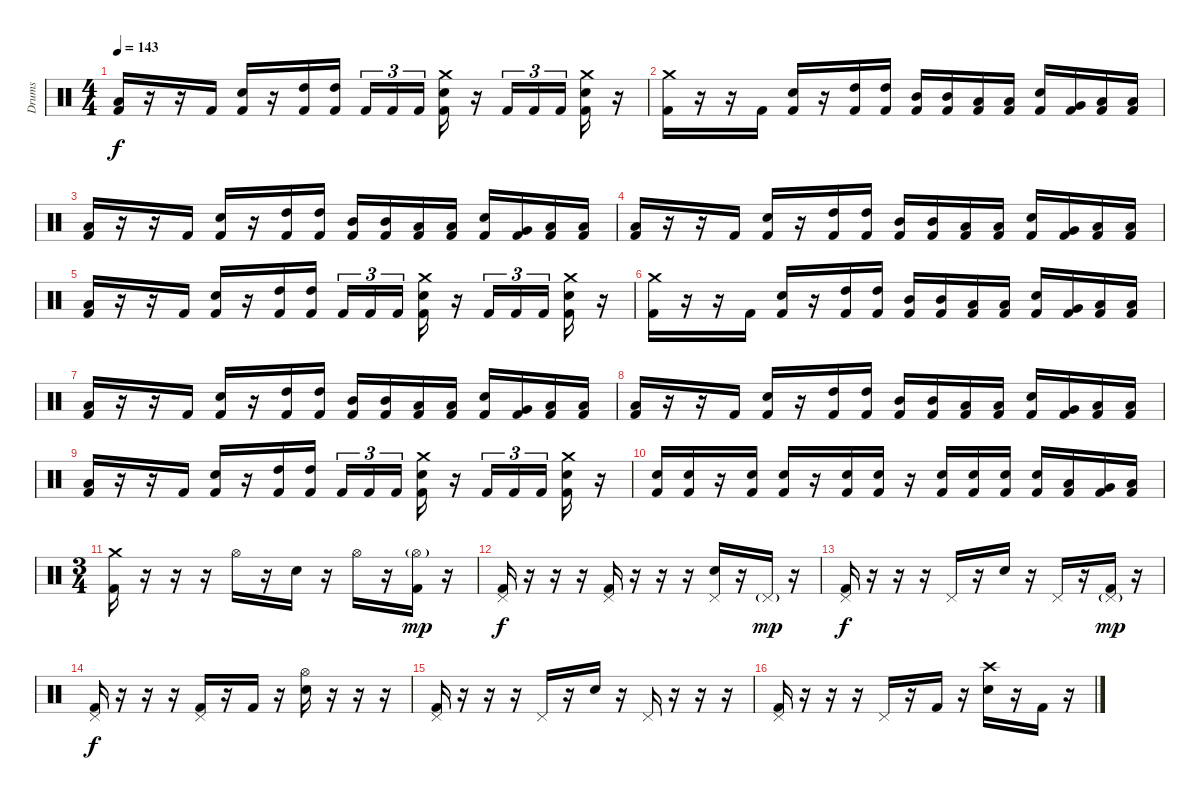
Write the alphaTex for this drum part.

\track ("Drums" "Drums") {instrument percussion}
\staff {score}
\articulation defaults
\ts (4 4)
\tempo 143
\clef neutral
\ks c
("Low Floor Tom (hit)" "Kick (hit) 2").16{dy f} r.16 r.16 "Kick (hit) 2".16 ("Electric Snare (hit)" "Kick (hit) 2").16 r.16 ("High Tom (hit)" "Kick (hit) 2").16 ("High Tom (hit)" "Kick (hit) 2").16 "Kick (hit) 2".16{tu (3 2)} "Kick (hit) 2".16{tu (3 2)} "Kick (hit) 2".16{tu (3 2)} ("Crash medium (hit)" "Electric Snare (hit)" "Kick (hit) 2").16 r.16 "Kick (hit) 2".16{tu (3 2)} "Kick (hit) 2".16{tu (3 2)} "Kick (hit) 2".16{tu (3 2)} ("Crash medium (hit)" "Electric Snare (hit)" "Kick (hit) 2").16 r.16 |
("Crash medium (hit)" "Kick (hit) 2").16 r.16 r.16 "Kick (hit) 2".16 ("Electric Snare (hit)" "Kick (hit) 2").16 r.16 ("High Tom (hit)" "Kick (hit) 2").16 ("High Tom (hit)" "Kick (hit) 2").16 ("Mid Tom (hit)" "Kick (hit) 2").16 ("Mid Tom (hit)" "Kick (hit) 2").16 ("Low Tom (hit)" "Kick (hit) 2").16 ("Low Tom (hit)" "Kick (hit) 2").16 ("Electric Snare (hit)" "Kick (hit) 2").16 ("Very Low Tom (hit)" "Kick (hit) 2").16 ("Low Floor Tom (hit)" "Kick (hit) 2").16 ("Low Floor Tom (hit)" "Kick (hit) 2").16 |
("Low Floor Tom (hit)" "Kick (hit) 2").16 r.16 r.16 "Kick (hit) 2".16 ("Electric Snare (hit)" "Kick (hit) 2").16 r.16 ("High Tom (hit)" "Kick (hit) 2").16 ("High Tom (hit)" "Kick (hit) 2").16 ("Mid Tom (hit)" "Kick (hit) 2").16 ("Mid Tom (hit)" "Kick (hit) 2").16 ("Low Tom (hit)" "Kick (hit) 2").16 ("Low Tom (hit)" "Kick (hit) 2").16 ("Electric Snare (hit)" "Kick (hit) 2").16 ("Very Low Tom (hit)" "Kick (hit) 2").16 ("Low Floor Tom (hit)" "Kick (hit) 2").16 ("Low Floor Tom (hit)" "Kick (hit) 2").16 |
("Low Floor Tom (hit)" "Kick (hit) 2").16 r.16 r.16 "Kick (hit) 2".16 ("Electric Snare (hit)" "Kick (hit) 2").16 r.16 ("High Tom (hit)" "Kick (hit) 2").16 ("High Tom (hit)" "Kick (hit) 2").16 ("Mid Tom (hit)" "Kick (hit) 2").16 ("Mid Tom (hit)" "Kick (hit) 2").16 ("Low Tom (hit)" "Kick (hit) 2").16 ("Low Tom (hit)" "Kick (hit) 2").16 ("Electric Snare (hit)" "Kick (hit) 2").16 ("Very Low Tom (hit)" "Kick (hit) 2").16 ("Low Floor Tom (hit)" "Kick (hit) 2").16 ("Low Floor Tom (hit)" "Kick (hit) 2").16 |
("Low Floor Tom (hit)" "Kick (hit) 2").16 r.16 r.16 "Kick (hit) 2".16 ("Electric Snare (hit)" "Kick (hit) 2").16 r.16 ("High Tom (hit)" "Kick (hit) 2").16 ("High Tom (hit)" "Kick (hit) 2").16 "Kick (hit) 2".16{tu (3 2)} "Kick (hit) 2".16{tu (3 2)} "Kick (hit) 2".16{tu (3 2)} ("Crash medium (hit)" "Electric Snare (hit)" "Kick (hit) 2").16 r.16 "Kick (hit) 2".16{tu (3 2)} "Kick (hit) 2".16{tu (3 2)} "Kick (hit) 2".16{tu (3 2)} ("Crash medium (hit)" "Electric Snare (hit)" "Kick (hit) 2").16 r.16 |
("Crash medium (hit)" "Kick (hit) 2").16 r.16 r.16 "Kick (hit) 2".16 ("Electric Snare (hit)" "Kick (hit) 2").16 r.16 ("High Tom (hit)" "Kick (hit) 2").16 ("High Tom (hit)" "Kick (hit) 2").16 ("Mid Tom (hit)" "Kick (hit) 2").16 ("Mid Tom (hit)" "Kick (hit) 2").16 ("Low Tom (hit)" "Kick (hit) 2").16 ("Low Tom (hit)" "Kick (hit) 2").16 ("Electric Snare (hit)" "Kick (hit) 2").16 ("Very Low Tom (hit)" "Kick (hit) 2").16 ("Low Floor Tom (hit)" "Kick (hit) 2").16 ("Low Floor Tom (hit)" "Kick (hit) 2").16 |
("Low Floor Tom (hit)" "Kick (hit) 2").16 r.16 r.16 "Kick (hit) 2".16 ("Electric Snare (hit)" "Kick (hit) 2").16 r.16 ("High Tom (hit)" "Kick (hit) 2").16 ("High Tom (hit)" "Kick (hit) 2").16 ("Mid Tom (hit)" "Kick (hit) 2").16 ("Mid Tom (hit)" "Kick (hit) 2").16 ("Low Tom (hit)" "Kick (hit) 2").16 ("Low Tom (hit)" "Kick (hit) 2").16 ("Electric Snare (hit)" "Kick (hit) 2").16 ("Very Low Tom (hit)" "Kick (hit) 2").16 ("Low Floor Tom (hit)" "Kick (hit) 2").16 ("Low Floor Tom (hit)" "Kick (hit) 2").16 |
("Low Floor Tom (hit)" "Kick (hit) 2").16 r.16 r.16 "Kick (hit) 2".16 ("Electric Snare (hit)" "Kick (hit) 2").16 r.16 ("High Tom (hit)" "Kick (hit) 2").16 ("High Tom (hit)" "Kick (hit) 2").16 ("Mid Tom (hit)" "Kick (hit) 2").16 ("Mid Tom (hit)" "Kick (hit) 2").16 ("Low Tom (hit)" "Kick (hit) 2").16 ("Low Tom (hit)" "Kick (hit) 2").16 ("Electric Snare (hit)" "Kick (hit) 2").16 ("Very Low Tom (hit)" "Kick (hit) 2").16 ("Low Floor Tom (hit)" "Kick (hit) 2").16 ("Low Floor Tom (hit)" "Kick (hit) 2").16 |
("Low Floor Tom (hit)" "Kick (hit) 2").16 r.16 r.16 "Kick (hit) 2".16 ("Electric Snare (hit)" "Kick (hit) 2").16 r.16 ("High Tom (hit)" "Kick (hit) 2").16 ("High Tom (hit)" "Kick (hit) 2").16 "Kick (hit) 2".16{tu (3 2)} "Kick (hit) 2".16{tu (3 2)} "Kick (hit) 2".16{tu (3 2)} ("Crash medium (hit)" "Electric Snare (hit)" "Kick (hit) 2").16 r.16 "Kick (hit) 2".16{tu (3 2)} "Kick (hit) 2".16{tu (3 2)} "Kick (hit) 2".16{tu (3 2)} ("Crash medium (hit)" "Electric Snare (hit)" "Kick (hit) 2").16 r.16 |
("Electric Snare (hit)" "Kick (hit) 2").16 ("Electric Snare (hit)" "Kick (hit) 2").16 r.16 ("Electric Snare (hit)" "Kick (hit) 2").16 ("Electric Snare (hit)" "Kick (hit) 2").16 r.16 ("Electric Snare (hit)" "Kick (hit) 2").16 ("Electric Snare (hit)" "Kick (hit) 2").16 r.16 ("Electric Snare (hit)" "Kick (hit) 2").16 ("Electric Snare (hit)" "Kick (hit) 2").16 ("Electric Snare (hit)" "Kick (hit) 2").16 ("Electric Snare (hit)" "Kick (hit) 2").16 ("Low Tom (hit)" "Kick (hit) 2").16 ("Very Low Tom (hit)" "Kick (hit) 2").16 ("Low Floor Tom (hit)" "Kick (hit) 2").16 |
\ts (3 4)
\section ("" "")
("Crash medium (hit)" "Kick (hit) 2").16 r.16 r.16 r.16 "Hi-Hat (open)".16 r.16 "Electric Snare (hit)".16 r.16 "Hi-Hat (open)".16 r.16 ("Hi-Hat (open)"{g} "Kick (hit) 2").16{dy mp} r.16 |
("Pedal Hi-Hat (hit)" "Kick (hit) 2").16{dy f} r.16 r.16 r.16 ("Pedal Hi-Hat (hit)" "Kick (hit) 2").16 r.16 r.16 r.16 ("Pedal Hi-Hat (hit)" "Electric Snare (hit)").16 r.16 "Pedal Hi-Hat (hit)"{g}.16{dy mp} r.16 |
("Pedal Hi-Hat (hit)" "Kick (hit) 2").16{dy f} r.16 r.16 r.16 "Pedal Hi-Hat (hit)".16 r.16 "Electric Snare (hit)".16 r.16 "Pedal Hi-Hat (hit)".16 r.16 ("Pedal Hi-Hat (hit)"{g} "Kick (hit) 2").16{dy mp} r.16 |
("Pedal Hi-Hat (hit)" "Kick (hit) 2").16{dy f} r.16 r.16 r.16 ("Pedal Hi-Hat (hit)" "Kick (hit) 2").16 r.16 "Kick (hit) 2".16 r.16 ("Hi-Hat (open)" "Electric Snare (hit)").16 r.16 r.16 r.16 |
("Pedal Hi-Hat (hit)" "Kick (hit) 2").16 r.16 r.16 r.16 "Pedal Hi-Hat (hit)".16 r.16 "Electric Snare (hit)".16 r.16 "Pedal Hi-Hat (hit)".16 r.16 r.16 r.16 |
("Pedal Hi-Hat (hit)" "Kick (hit) 2").16 r.16 r.16 r.16 "Pedal Hi-Hat (hit)".16 r.16 "Kick (hit) 2".16 r.16 ("Crash high (hit)" "Electric Snare (hit)").16 r.16 "Kick (hit) 2".16 r.16
